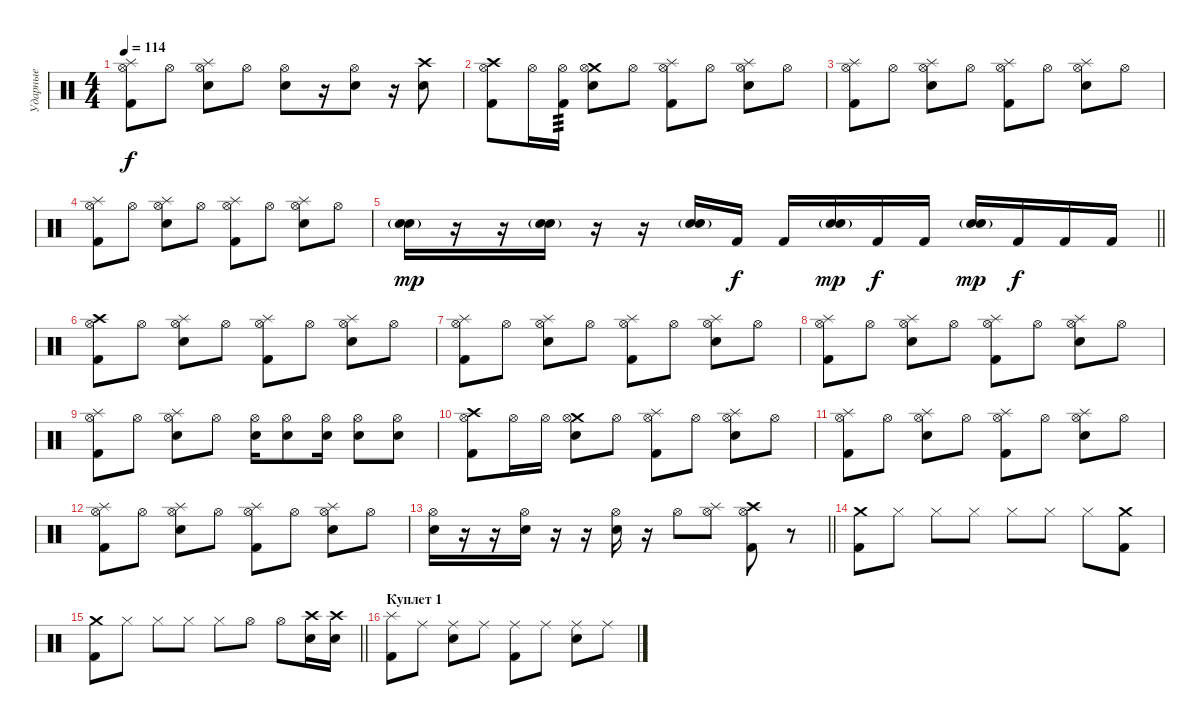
\track ("Ударные" "Ударные") {instrument percussion}
\staff {score}
\articulation defaults
\ts (4 4)
\tempo 114
\clef neutral
\ks c
("Splash (hit)" "Hi-Hat (open)" "Kick (hit) 2").8{dy f} "Hi-Hat (open)".8 ("Splash (hit)" "Hi-Hat (open)" "Snare (hit) 2").8 "Hi-Hat (open)".8 ("Hi-Hat (open)" "Snare (hit) 2").8 r.16 ("Hi-Hat (open)" "Snare (hit) 2").8 r.16 ("Crash high (hit)" "Snare (hit) 2").8 |
("Crash high (hit)" "Hi-Hat (open)" "Kick (hit) 2").8 "Hi-Hat (open)".16 ("Hi-Hat (open)" "Kick (hit) 2").16{tp 3} ("Crash medium (hit)" "Hi-Hat (open)" "Snare (hit) 2").8 "Hi-Hat (open)".8 ("Splash (hit)" "Hi-Hat (open)" "Kick (hit) 2").8 "Hi-Hat (open)".8 ("Splash (hit)" "Hi-Hat (open)" "Snare (hit) 2").8 "Hi-Hat (open)".8 |
("Splash (hit)" "Hi-Hat (open)" "Kick (hit) 2").8 "Hi-Hat (open)".8 ("Splash (hit)" "Hi-Hat (open)" "Snare (hit) 2").8 "Hi-Hat (open)".8 ("Splash (hit)" "Hi-Hat (open)" "Kick (hit) 2").8 "Hi-Hat (open)".8 ("Splash (hit)" "Hi-Hat (open)" "Snare (hit) 2").8 "Hi-Hat (open)".8 |
("Splash (hit)" "Hi-Hat (open)" "Kick (hit) 2").8 "Hi-Hat (open)".8 ("Splash (hit)" "Hi-Hat (open)" "Snare (hit) 2").8 "Hi-Hat (open)".8 ("Splash (hit)" "Hi-Hat (open)" "Kick (hit) 2").8 "Hi-Hat (open)".8 ("Splash (hit)" "Hi-Hat (open)" "Snare (hit) 2").8 "Hi-Hat (open)".8 |
\barLineRight lightlight
("Snare (hit) 2"{g} "Snare (hit) 2").16{dy mp} r.16 r.16 ("Snare (hit) 2"{g} "Snare (hit) 2").16 r.16 r.16 ("Snare (hit) 2"{g} "Snare (hit) 2").16 "Kick (hit) 2".16{dy f} "Kick (hit) 2".16 ("Snare (hit) 2"{g} "Snare (hit) 2").16{dy mp} "Kick (hit) 2".16{dy f} "Kick (hit) 2".16 ("Snare (hit) 2"{g} "Snare (hit) 2").16{dy mp} "Kick (hit) 2".16{dy f} "Kick (hit) 2".16 "Kick (hit) 2".16 |
("Crash high (hit)" "Hi-Hat (open)" "Kick (hit) 2").8 "Hi-Hat (open)".8 ("Splash (hit)" "Hi-Hat (open)" "Snare (hit) 2").8 "Hi-Hat (open)".8 ("Splash (hit)" "Hi-Hat (open)" "Kick (hit) 2").8 "Hi-Hat (open)".8 ("Splash (hit)" "Hi-Hat (open)" "Snare (hit) 2").8 "Hi-Hat (open)".8 |
("Splash (hit)" "Hi-Hat (open)" "Kick (hit) 2").8 "Hi-Hat (open)".8 ("Splash (hit)" "Hi-Hat (open)" "Snare (hit) 2").8 "Hi-Hat (open)".8 ("Splash (hit)" "Hi-Hat (open)" "Kick (hit) 2").8 "Hi-Hat (open)".8 ("Splash (hit)" "Hi-Hat (open)" "Snare (hit) 2").8 "Hi-Hat (open)".8 |
("Splash (hit)" "Hi-Hat (open)" "Kick (hit) 2").8 "Hi-Hat (open)".8 ("Splash (hit)" "Hi-Hat (open)" "Snare (hit) 2").8 "Hi-Hat (open)".8 ("Splash (hit)" "Hi-Hat (open)" "Kick (hit) 2").8 "Hi-Hat (open)".8 ("Splash (hit)" "Hi-Hat (open)" "Snare (hit) 2").8 "Hi-Hat (open)".8 |
("Splash (hit)" "Hi-Hat (open)" "Kick (hit) 2").8 "Hi-Hat (open)".8 ("Splash (hit)" "Hi-Hat (open)" "Snare (hit) 2").8 "Hi-Hat (open)".8 ("Hi-Hat (open)" "Snare (hit) 2").16 ("Hi-Hat (open)" "Snare (hit) 2").8 ("Hi-Hat (open)" "Snare (hit) 2").16 ("Hi-Hat (open)" "Snare (hit) 2").8 ("Hi-Hat (open)" "Snare (hit) 2").8 |
("Crash high (hit)" "Hi-Hat (open)" "Kick (hit) 2").8 "Hi-Hat (open)".16 "Hi-Hat (open)".16 ("Crash medium (hit)" "Hi-Hat (open)" "Snare (hit) 2").8 "Hi-Hat (open)".8 ("Splash (hit)" "Hi-Hat (open)" "Kick (hit) 2").8 "Hi-Hat (open)".8 ("Splash (hit)" "Hi-Hat (open)" "Snare (hit) 2").8 "Hi-Hat (open)".8 |
("Splash (hit)" "Hi-Hat (open)" "Kick (hit) 2").8 "Hi-Hat (open)".8 ("Splash (hit)" "Hi-Hat (open)" "Snare (hit) 2").8 "Hi-Hat (open)".8 ("Splash (hit)" "Hi-Hat (open)" "Kick (hit) 2").8 "Hi-Hat (open)".8 ("Splash (hit)" "Hi-Hat (open)" "Snare (hit) 2").8 "Hi-Hat (open)".8 |
("Splash (hit)" "Hi-Hat (open)" "Kick (hit) 2").8 "Hi-Hat (open)".8 ("Splash (hit)" "Hi-Hat (open)" "Snare (hit) 2").8 "Hi-Hat (open)".8 ("Splash (hit)" "Hi-Hat (open)" "Kick (hit) 2").8 "Hi-Hat (open)".8 ("Splash (hit)" "Hi-Hat (open)" "Snare (hit) 2").8 "Hi-Hat (open)".8 |
\barLineRight lightlight
("Hi-Hat (open)" "Snare (hit) 2").16 r.16 r.16 ("Hi-Hat (open)" "Snare (hit) 2").16 r.16 r.16 ("Hi-Hat (open)" "Snare (hit) 2").16 r.16 "Hi-Hat (open)".8 ("Splash (hit)" "Hi-Hat (open)").8 ("Crash high (hit)" "Hi-Hat (open)" "Kick (hit) 2").8 r.8 |
("Kick (hit) 2" "Crash medium (hit)").8 "Hi-Hat (closed)".8 "Hi-Hat (closed)".8 "Hi-Hat (closed)".8 "Hi-Hat (closed)".8 "Hi-Hat (closed)".8 "Hi-Hat (closed)".8 ("Crash medium (hit)" "Kick (hit) 2").8 |
\barLineRight lightlight
("Kick (hit) 2" "Crash medium (hit)").8 "Hi-Hat (closed)".8 "Hi-Hat (closed)".8 "Hi-Hat (closed)".8 "Hi-Hat (closed)".8 "Hi-Hat (open)".8 "Hi-Hat (open)".8 ("Snare (hit) 2" "Crash high (hit)").16 ("Snare (hit) 2" "Crash high (hit)").16 |
\section ("" "Куплет 1")
("Splash (hit)" "Kick (hit) 2").8 "Ride (middle)".8 ("Ride (middle)" "Snare (hit) 2").8 "Ride (middle)".8 ("Ride (middle)" "Kick (hit) 2").8 "Ride (middle)".8 ("Ride (middle)" "Snare (hit) 2").8 "Ride (middle)".8
